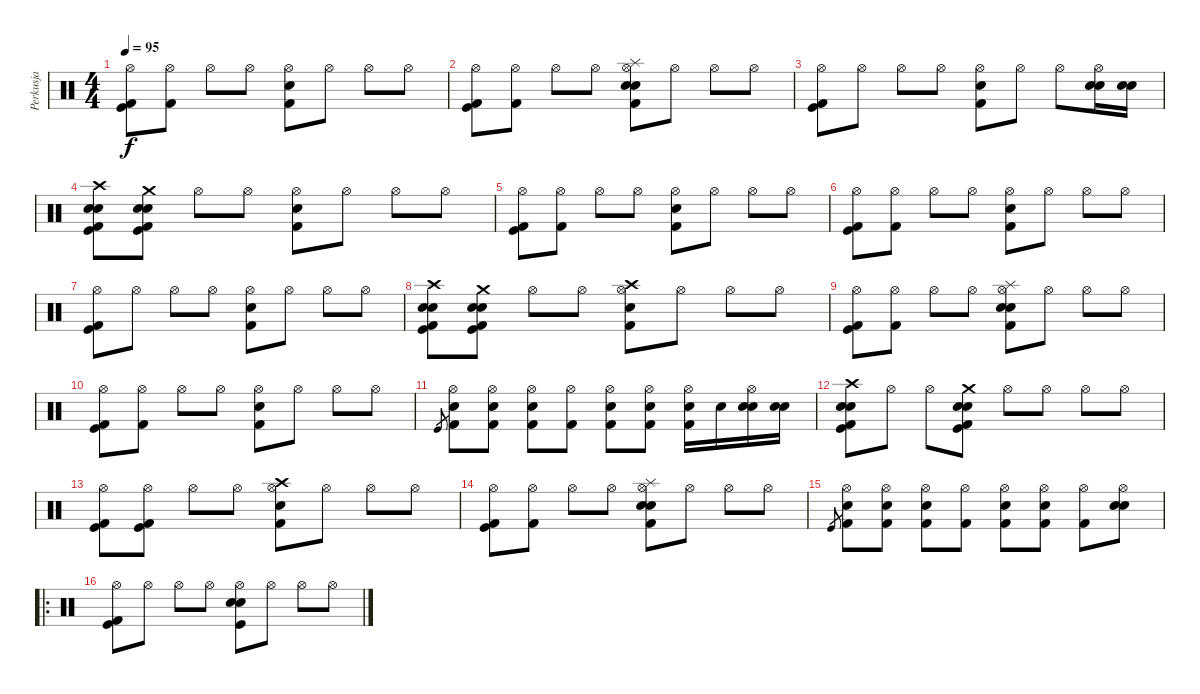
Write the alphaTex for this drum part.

\track ("Perkusja" "Perkusja") {instrument percussion}
\staff {score}
\articulation defaults
\ts (4 4)
\tempo 95
\clef neutral
\ks c
("Hi-Hat (open)" "Kick (hit)" "Kick (hit) 2").8{dy f} ("Hi-Hat (open)" "Kick (hit) 2").8 "Hi-Hat (open)".8 "Hi-Hat (open)".8 ("Hi-Hat (open)" "Kick (hit) 2" "Electric Snare (hit)").8 "Hi-Hat (open)".8 "Hi-Hat (open)".8 "Hi-Hat (open)".8 |
("Hi-Hat (open)" "Kick (hit)" "Kick (hit) 2").8 ("Hi-Hat (open)" "Kick (hit) 2").8 "Hi-Hat (open)".8 "Hi-Hat (open)".8 ("Hi-Hat (open)" "Splash (hit)" "Snare (hit) 2" "Kick (hit) 2" "Electric Snare (hit)").8 "Hi-Hat (open)".8 "Hi-Hat (open)".8 "Hi-Hat (open)".8 |
("Hi-Hat (open)" "Kick (hit)" "Kick (hit) 2").8 "Hi-Hat (open)".8 "Hi-Hat (open)".8 "Hi-Hat (open)".8 ("Hi-Hat (open)" "Kick (hit) 2" "Electric Snare (hit)").8 "Hi-Hat (open)".8 "Hi-Hat (open)".8 ("Hi-Hat (open)" "Electric Snare (hit)" "Electric Snare (hit)").16 ("Electric Snare (hit)" "Electric Snare (hit)").16 |
("Crash high (hit)" "Snare (hit) 2" "Electric Snare (hit)" "Kick (hit)" "Kick (hit) 2").8 ("Crash medium (hit)" "Snare (hit) 2" "Electric Snare (hit)" "Kick (hit)" "Kick (hit) 2").8 "Hi-Hat (open)".8 "Hi-Hat (open)".8 ("Hi-Hat (open)" "Kick (hit) 2" "Electric Snare (hit)").8 "Hi-Hat (open)".8 "Hi-Hat (open)".8 "Hi-Hat (open)".8 |
("Hi-Hat (open)" "Kick (hit)" "Kick (hit) 2").8 ("Hi-Hat (open)" "Kick (hit) 2").8 "Hi-Hat (open)".8 "Hi-Hat (open)".8 ("Hi-Hat (open)" "Kick (hit) 2" "Electric Snare (hit)").8 "Hi-Hat (open)".8 "Hi-Hat (open)".8 "Hi-Hat (open)".8 |
("Hi-Hat (open)" "Kick (hit)" "Kick (hit) 2").8 ("Hi-Hat (open)" "Kick (hit) 2").8 "Hi-Hat (open)".8 "Hi-Hat (open)".8 ("Hi-Hat (open)" "Kick (hit) 2" "Electric Snare (hit)").8 "Hi-Hat (open)".8 "Hi-Hat (open)".8 "Hi-Hat (open)".8 |
("Hi-Hat (open)" "Kick (hit)" "Kick (hit) 2").8 "Hi-Hat (open)".8 "Hi-Hat (open)".8 "Hi-Hat (open)".8 ("Hi-Hat (open)" "Kick (hit) 2" "Electric Snare (hit)").8 "Hi-Hat (open)".8 "Hi-Hat (open)".8 "Hi-Hat (open)".8 |
("Crash high (hit)" "Snare (hit) 2" "Electric Snare (hit)" "Kick (hit)" "Kick (hit) 2").8 ("Crash medium (hit)" "Snare (hit) 2" "Electric Snare (hit)" "Kick (hit)" "Kick (hit) 2").8 "Hi-Hat (open)".8 "Hi-Hat (open)".8 ("Hi-Hat (open)" "Crash high (hit)" "Kick (hit) 2" "Electric Snare (hit)").8 "Hi-Hat (open)".8 "Hi-Hat (open)".8 "Hi-Hat (open)".8 |
("Hi-Hat (open)" "Kick (hit)" "Kick (hit) 2").8 ("Hi-Hat (open)" "Kick (hit) 2").8 "Hi-Hat (open)".8 "Hi-Hat (open)".8 ("Hi-Hat (open)" "Splash (hit)" "Snare (hit) 2" "Kick (hit) 2" "Electric Snare (hit)").8 "Hi-Hat (open)".8 "Hi-Hat (open)".8 "Hi-Hat (open)".8 |
("Hi-Hat (open)" "Kick (hit)" "Kick (hit) 2").8 ("Hi-Hat (open)" "Kick (hit) 2").8 "Hi-Hat (open)".8 "Hi-Hat (open)".8 ("Hi-Hat (open)" "Kick (hit) 2" "Electric Snare (hit)").8 "Hi-Hat (open)".8 "Hi-Hat (open)".8 "Hi-Hat (open)".8 |
"Kick (hit)".8{gr} ("Hi-Hat (open)" "Snare (hit) 2" "Kick (hit) 2").8 ("Hi-Hat (open)" "Electric Snare (hit)" "Kick (hit) 2").8 ("Hi-Hat (open)" "Electric Snare (hit)" "Kick (hit) 2").8 ("Hi-Hat (open)" "Kick (hit) 2").8 ("Hi-Hat (open)" "Kick (hit) 2" "Electric Snare (hit)").8 ("Hi-Hat (open)" "Electric Snare (hit)" "Kick (hit) 2").8 ("Hi-Hat (open)" "Electric Snare (hit)" "Kick (hit) 2").16 "Electric Snare (hit)".16 ("Hi-Hat (open)" "Electric Snare (hit)" "Electric Snare (hit)").16 ("Electric Snare (hit)" "Electric Snare (hit)").16 |
("Crash high (hit)" "Snare (hit) 2" "Electric Snare (hit)" "Kick (hit)" "Kick (hit) 2").8 "Hi-Hat (open)".8 "Hi-Hat (open)".8 ("Crash medium (hit)" "Snare (hit) 2" "Electric Snare (hit)" "Kick (hit)" "Kick (hit) 2").8 "Hi-Hat (open)".8 "Hi-Hat (open)".8 "Hi-Hat (open)".8 "Hi-Hat (open)".8 |
("Hi-Hat (open)" "Kick (hit)" "Kick (hit) 2").8 ("Hi-Hat (open)" "Kick (hit)" "Kick (hit) 2").8 "Hi-Hat (open)".8 "Hi-Hat (open)".8 ("Hi-Hat (open)" "Crash high (hit)" "Kick (hit) 2" "Electric Snare (hit)").8 "Hi-Hat (open)".8 "Hi-Hat (open)".8 "Hi-Hat (open)".8 |
("Hi-Hat (open)" "Kick (hit)" "Kick (hit) 2").8 ("Hi-Hat (open)" "Kick (hit) 2").8 "Hi-Hat (open)".8 "Hi-Hat (open)".8 ("Hi-Hat (open)" "Splash (hit)" "Snare (hit) 2" "Kick (hit) 2" "Electric Snare (hit)").8 "Hi-Hat (open)".8 "Hi-Hat (open)".8 "Hi-Hat (open)".8 |
"Kick (hit)".8{gr} ("Hi-Hat (open)" "Snare (hit) 2" "Kick (hit) 2").8 ("Hi-Hat (open)" "Electric Snare (hit)" "Kick (hit) 2").8 ("Hi-Hat (open)" "Electric Snare (hit)" "Kick (hit) 2").8 ("Hi-Hat (open)" "Kick (hit) 2").8 ("Hi-Hat (open)" "Kick (hit) 2" "Electric Snare (hit)").8 ("Hi-Hat (open)" "Electric Snare (hit)" "Kick (hit) 2").8 ("Hi-Hat (open)" "Kick (hit) 2").8 ("Hi-Hat (open)" "Electric Snare (hit)" "Electric Snare (hit)").8 |
\ro
("Hi-Hat (open)" "Kick (hit)" "Kick (hit) 2").8 "Hi-Hat (open)".8 "Hi-Hat (open)".8 "Hi-Hat (open)".8 ("Hi-Hat (open)" "Snare (hit) 2" "Kick (hit)" "Electric Snare (hit)").8 "Hi-Hat (open)".8 "Hi-Hat (open)".8 "Hi-Hat (open)".8
